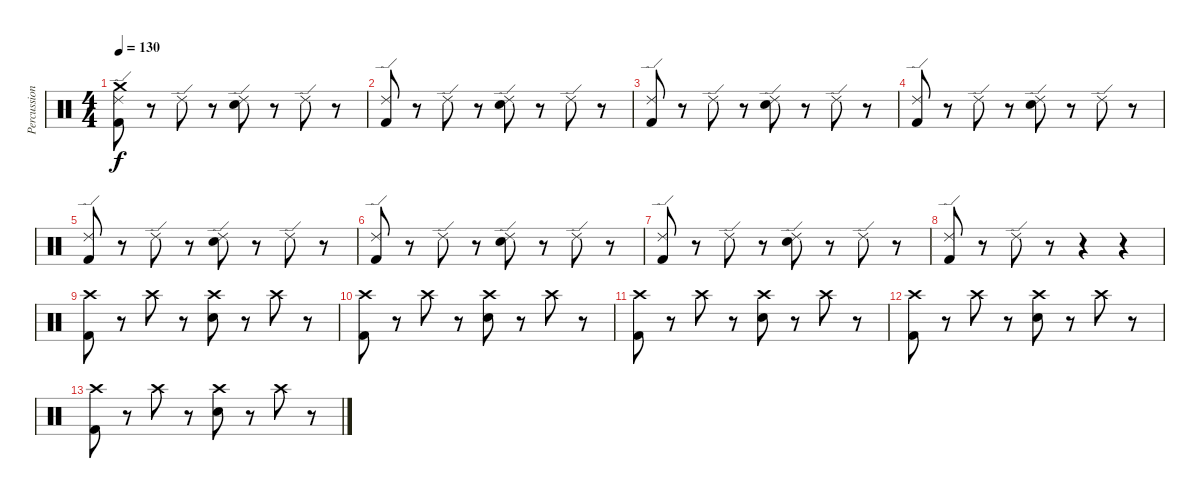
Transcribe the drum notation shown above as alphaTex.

\track ("Percussion" "Percussion") {instrument percussion}
\staff {score}
\articulation defaults
\ts (4 4)
\tempo 130
\clef neutral
\ks c
("Crash medium (hit)" "Ride (edge) 2" "Kick (hit) 2").8{dy f} r.8 "Ride (edge) 2".8 r.8 ("Ride (edge) 2" "Snare (hit) 2").8 r.8 "Ride (edge) 2".8 r.8 |
("Ride (edge) 2" "Kick (hit) 2").8 r.8 "Ride (edge) 2".8 r.8 ("Ride (edge) 2" "Snare (hit) 2").8 r.8 "Ride (edge) 2".8 r.8 |
("Ride (edge) 2" "Kick (hit) 2").8 r.8 "Ride (edge) 2".8 r.8 ("Ride (edge) 2" "Snare (hit) 2").8 r.8 "Ride (edge) 2".8 r.8 |
("Ride (edge) 2" "Kick (hit) 2").8 r.8 "Ride (edge) 2".8 r.8 ("Ride (edge) 2" "Snare (hit) 2").8 r.8 "Ride (edge) 2".8 r.8 |
("Ride (edge) 2" "Kick (hit) 2").8 r.8 "Ride (edge) 2".8 r.8 ("Ride (edge) 2" "Snare (hit) 2").8 r.8 "Ride (edge) 2".8 r.8 |
("Ride (edge) 2" "Kick (hit) 2").8 r.8 "Ride (edge) 2".8 r.8 ("Ride (edge) 2" "Snare (hit) 2").8 r.8 "Ride (edge) 2".8 r.8 |
("Ride (edge) 2" "Kick (hit) 2").8 r.8 "Ride (edge) 2".8 r.8 ("Ride (edge) 2" "Snare (hit) 2").8 r.8 "Ride (edge) 2".8 r.8 |
("Ride (edge) 2" "Kick (hit) 2").8 r.8 "Ride (edge) 2".8 r.8 r.4 r.4 |
("Crash high (hit)" "Kick (hit) 2").8 r.8 "Crash high (hit)".8 r.8 ("Crash high (hit)" "Snare (hit) 2").8 r.8 "Crash high (hit)".8 r.8 |
("Crash high (hit)" "Kick (hit) 2").8 r.8 "Crash high (hit)".8 r.8 ("Crash high (hit)" "Snare (hit) 2").8 r.8 "Crash high (hit)".8 r.8 |
("Crash high (hit)" "Kick (hit) 2").8 r.8 "Crash high (hit)".8 r.8 ("Crash high (hit)" "Snare (hit) 2").8 r.8 "Crash high (hit)".8 r.8 |
("Crash high (hit)" "Kick (hit) 2").8 r.8 "Crash high (hit)".8 r.8 ("Crash high (hit)" "Snare (hit) 2").8 r.8 "Crash high (hit)".8 r.8 |
("Crash high (hit)" "Kick (hit) 2").8 r.8 "Crash high (hit)".8 r.8 ("Crash high (hit)" "Snare (hit) 2").8 r.8 "Crash high (hit)".8 r.8
